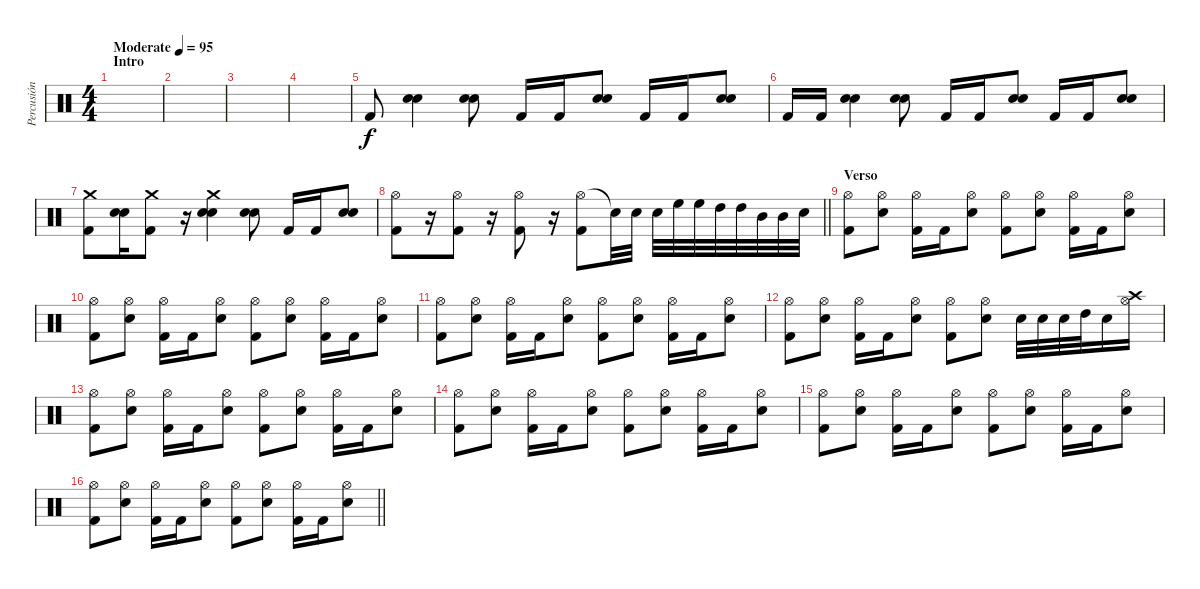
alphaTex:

\track ("Percusión" "Percusión") {instrument percussion}
\staff {score}
\articulation defaults
\ts (4 4)
\section ("" "Intro")
\tempo (95 "Moderate")
\clef neutral
\ks c
|
|
|
|
"Kick (hit) 2".8 ("Electric Snare (hit)" "Electric Snare (hit)").4 ("Electric Snare (hit)" "Electric Snare (hit)").8 "Kick (hit) 2".16 "Kick (hit) 2".16 ("Electric Snare (hit)" "Electric Snare (hit)").8 "Kick (hit) 2".16 "Kick (hit) 2".16 ("Electric Snare (hit)" "Electric Snare (hit)").8 |
"Kick (hit) 2".16 "Kick (hit) 2".16 ("Electric Snare (hit)" "Electric Snare (hit)").4 ("Electric Snare (hit)" "Electric Snare (hit)").8 "Kick (hit) 2".16 "Kick (hit) 2".16 ("Electric Snare (hit)" "Electric Snare (hit)").8 "Kick (hit) 2".16 "Kick (hit) 2".16 ("Electric Snare (hit)" "Electric Snare (hit)").8 |
("Crash medium (hit)" "Kick (hit) 2").8 ("Electric Snare (hit)" "Electric Snare (hit)").16 ("Crash medium (hit)" "Kick (hit) 2").8 r.16 ("Crash medium (hit)" "Electric Snare (hit)" "Electric Snare (hit)").4 ("Electric Snare (hit)" "Electric Snare (hit)").8 "Kick (hit) 2".16 "Kick (hit) 2".16 ("Electric Snare (hit)" "Electric Snare (hit)").8 |
\barLineRight lightlight
("Hi-Hat (open)" "Kick (hit) 2").8 r.16 ("Hi-Hat (open)" "Kick (hit) 2").8 r.16 ("Hi-Hat (open)" "Kick (hit) 2").8 r.16 ("Hi-Hat (open)" "Kick (hit) 2").8 "Electric Snare (hit)"{t}.32 "Electric Snare (hit)".32 "Electric Snare (hit)".32 "High Floor Tom (hit)".32 "High Floor Tom (hit)".32 "High Tom (hit)".32 "High Tom (hit)".32 "Mid Tom (hit)".32 "Mid Tom (hit)".32 "Electric Snare (hit)".32 |
\section ("" "Verso")
("Hi-Hat (open)" "Kick (hit) 2").8 ("Hi-Hat (open)" "Electric Snare (hit)").8 ("Hi-Hat (open)" "Kick (hit) 2").16 "Kick (hit) 2".16 ("Hi-Hat (open)" "Electric Snare (hit)").8 ("Hi-Hat (open)" "Kick (hit) 2").8 ("Hi-Hat (open)" "Electric Snare (hit)").8 ("Hi-Hat (open)" "Kick (hit) 2").16 "Kick (hit) 2".16 ("Hi-Hat (open)" "Electric Snare (hit)").8 |
("Hi-Hat (open)" "Kick (hit) 2").8 ("Hi-Hat (open)" "Electric Snare (hit)").8 ("Hi-Hat (open)" "Kick (hit) 2").16 "Kick (hit) 2".16 ("Hi-Hat (open)" "Electric Snare (hit)").8 ("Hi-Hat (open)" "Kick (hit) 2").8 ("Hi-Hat (open)" "Electric Snare (hit)").8 ("Hi-Hat (open)" "Kick (hit) 2").16 "Kick (hit) 2".16 ("Hi-Hat (open)" "Electric Snare (hit)").8 |
("Hi-Hat (open)" "Kick (hit) 2").8 ("Hi-Hat (open)" "Electric Snare (hit)").8 ("Hi-Hat (open)" "Kick (hit) 2").16 "Kick (hit) 2".16 ("Hi-Hat (open)" "Electric Snare (hit)").8 ("Hi-Hat (open)" "Kick (hit) 2").8 ("Hi-Hat (open)" "Electric Snare (hit)").8 ("Hi-Hat (open)" "Kick (hit) 2").16 "Kick (hit) 2".16 ("Hi-Hat (open)" "Electric Snare (hit)").8 |
("Hi-Hat (open)" "Kick (hit) 2").8 ("Hi-Hat (open)" "Electric Snare (hit)").8 ("Hi-Hat (open)" "Kick (hit) 2").16 "Kick (hit) 2".16 ("Hi-Hat (open)" "Electric Snare (hit)").8 ("Hi-Hat (open)" "Kick (hit) 2").8 ("Hi-Hat (open)" "Electric Snare (hit)").8 "Electric Snare (hit)".32 "Electric Snare (hit)".32 "Electric Snare (hit)".32 "High Tom (hit)".32 "Electric Snare (hit)".16 ("Hi-Hat (open)" "Crash high (hit)").16 |
("Hi-Hat (open)" "Kick (hit) 2").8 ("Hi-Hat (open)" "Electric Snare (hit)").8 ("Hi-Hat (open)" "Kick (hit) 2").16 "Kick (hit) 2".16 ("Hi-Hat (open)" "Electric Snare (hit)").8 ("Hi-Hat (open)" "Kick (hit) 2").8 ("Hi-Hat (open)" "Electric Snare (hit)").8 ("Hi-Hat (open)" "Kick (hit) 2").16 "Kick (hit) 2".16 ("Hi-Hat (open)" "Electric Snare (hit)").8 |
("Hi-Hat (open)" "Kick (hit) 2").8 ("Hi-Hat (open)" "Electric Snare (hit)").8 ("Hi-Hat (open)" "Kick (hit) 2").16 "Kick (hit) 2".16 ("Hi-Hat (open)" "Electric Snare (hit)").8 ("Hi-Hat (open)" "Kick (hit) 2").8 ("Hi-Hat (open)" "Electric Snare (hit)").8 ("Hi-Hat (open)" "Kick (hit) 2").16 "Kick (hit) 2".16 ("Hi-Hat (open)" "Electric Snare (hit)").8 |
("Hi-Hat (open)" "Kick (hit) 2").8 ("Hi-Hat (open)" "Electric Snare (hit)").8 ("Hi-Hat (open)" "Kick (hit) 2").16 "Kick (hit) 2".16 ("Hi-Hat (open)" "Electric Snare (hit)").8 ("Hi-Hat (open)" "Kick (hit) 2").8 ("Hi-Hat (open)" "Electric Snare (hit)").8 ("Hi-Hat (open)" "Kick (hit) 2").16 "Kick (hit) 2".16 ("Hi-Hat (open)" "Electric Snare (hit)").8 |
\barLineRight lightlight
("Hi-Hat (open)" "Kick (hit) 2").8 ("Hi-Hat (open)" "Electric Snare (hit)").8 ("Hi-Hat (open)" "Kick (hit) 2").16 "Kick (hit) 2".16 ("Hi-Hat (open)" "Electric Snare (hit)").8 ("Hi-Hat (open)" "Kick (hit) 2").8 ("Hi-Hat (open)" "Electric Snare (hit)").8 ("Hi-Hat (open)" "Kick (hit) 2").16 "Kick (hit) 2".16 ("Hi-Hat (open)" "Electric Snare (hit)").8
